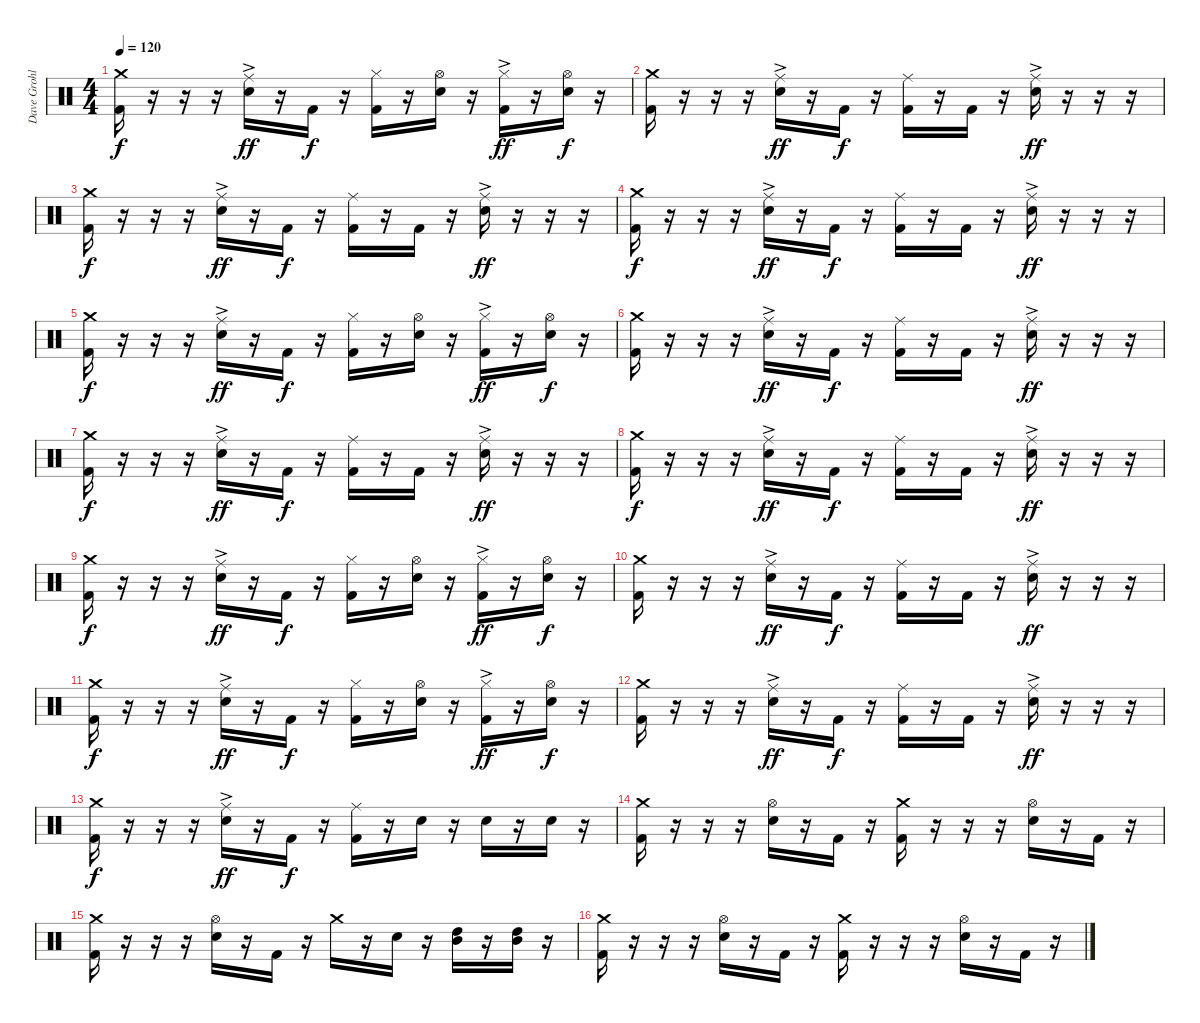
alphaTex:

\track ("Dave Grohl" "Dave Grohl") {instrument percussion}
\staff {score}
\articulation defaults
\ts (4 4)
\tempo 120
\clef neutral
\ks c
("Crash medium (hit)" "Kick (hit) 2").16{dy f} r.16 r.16 r.16 ("Ride (middle)"{ac} "Electric Snare (hit)").16{dy ff} r.16 "Kick (hit) 2".16{dy f} r.16 ("Hi-Hat (closed)" "Kick (hit) 2").16 r.16 ("Hi-Hat (open)" "Electric Snare (hit)").16 r.16 ("Hi-Hat (closed)"{ac} "Kick (hit) 2").16{dy ff} r.16 ("Hi-Hat (open)" "Electric Snare (hit)").16{dy f} r.16 |
("Crash medium (hit)" "Kick (hit) 2").16 r.16 r.16 r.16 ("Ride (middle)"{ac} "Electric Snare (hit)").16{dy ff} r.16 "Kick (hit) 2".16{dy f} r.16 ("Ride (middle)" "Kick (hit) 2").16 r.16 "Kick (hit) 2".16 r.16 ("Ride (middle)"{ac} "Electric Snare (hit)").16{dy ff} r.16 r.16 r.16 |
("Crash medium (hit)" "Kick (hit) 2").16{dy f} r.16 r.16 r.16 ("Ride (middle)"{ac} "Electric Snare (hit)").16{dy ff} r.16 "Kick (hit) 2".16{dy f} r.16 ("Ride (middle)" "Kick (hit) 2").16 r.16 "Kick (hit) 2".16 r.16 ("Ride (middle)"{ac} "Electric Snare (hit)").16{dy ff} r.16 r.16 r.16 |
("Crash medium (hit)" "Kick (hit) 2").16{dy f} r.16 r.16 r.16 ("Ride (middle)"{ac} "Electric Snare (hit)").16{dy ff} r.16 "Kick (hit) 2".16{dy f} r.16 ("Ride (middle)" "Kick (hit) 2").16 r.16 "Kick (hit) 2".16 r.16 ("Ride (middle)"{ac} "Electric Snare (hit)").16{dy ff} r.16 r.16 r.16 |
("Crash medium (hit)" "Kick (hit) 2").16{dy f} r.16 r.16 r.16 ("Ride (middle)"{ac} "Electric Snare (hit)").16{dy ff} r.16 "Kick (hit) 2".16{dy f} r.16 ("Hi-Hat (closed)" "Kick (hit) 2").16 r.16 ("Hi-Hat (open)" "Electric Snare (hit)").16 r.16 ("Hi-Hat (closed)"{ac} "Kick (hit) 2").16{dy ff} r.16 ("Hi-Hat (open)" "Electric Snare (hit)").16{dy f} r.16 |
("Crash medium (hit)" "Kick (hit) 2").16 r.16 r.16 r.16 ("Ride (middle)"{ac} "Electric Snare (hit)").16{dy ff} r.16 "Kick (hit) 2".16{dy f} r.16 ("Ride (middle)" "Kick (hit) 2").16 r.16 "Kick (hit) 2".16 r.16 ("Ride (middle)"{ac} "Electric Snare (hit)").16{dy ff} r.16 r.16 r.16 |
("Crash medium (hit)" "Kick (hit) 2").16{dy f} r.16 r.16 r.16 ("Ride (middle)"{ac} "Electric Snare (hit)").16{dy ff} r.16 "Kick (hit) 2".16{dy f} r.16 ("Ride (middle)" "Kick (hit) 2").16 r.16 "Kick (hit) 2".16 r.16 ("Ride (middle)"{ac} "Electric Snare (hit)").16{dy ff} r.16 r.16 r.16 |
("Crash medium (hit)" "Kick (hit) 2").16{dy f} r.16 r.16 r.16 ("Ride (middle)"{ac} "Electric Snare (hit)").16{dy ff} r.16 "Kick (hit) 2".16{dy f} r.16 ("Ride (middle)" "Kick (hit) 2").16 r.16 "Kick (hit) 2".16 r.16 ("Ride (middle)"{ac} "Electric Snare (hit)").16{dy ff} r.16 r.16 r.16 |
("Crash medium (hit)" "Kick (hit) 2").16{dy f} r.16 r.16 r.16 ("Ride (middle)"{ac} "Electric Snare (hit)").16{dy ff} r.16 "Kick (hit) 2".16{dy f} r.16 ("Hi-Hat (closed)" "Kick (hit) 2").16 r.16 ("Hi-Hat (open)" "Electric Snare (hit)").16 r.16 ("Hi-Hat (closed)"{ac} "Kick (hit) 2").16{dy ff} r.16 ("Hi-Hat (open)" "Electric Snare (hit)").16{dy f} r.16 |
("Crash medium (hit)" "Kick (hit) 2").16 r.16 r.16 r.16 ("Ride (middle)"{ac} "Electric Snare (hit)").16{dy ff} r.16 "Kick (hit) 2".16{dy f} r.16 ("Ride (middle)" "Kick (hit) 2").16 r.16 "Kick (hit) 2".16 r.16 ("Ride (middle)"{ac} "Electric Snare (hit)").16{dy ff} r.16 r.16 r.16 |
("Crash medium (hit)" "Kick (hit) 2").16{dy f} r.16 r.16 r.16 ("Ride (middle)"{ac} "Electric Snare (hit)").16{dy ff} r.16 "Kick (hit) 2".16{dy f} r.16 ("Hi-Hat (closed)" "Kick (hit) 2").16 r.16 ("Hi-Hat (open)" "Electric Snare (hit)").16 r.16 ("Hi-Hat (closed)"{ac} "Kick (hit) 2").16{dy ff} r.16 ("Hi-Hat (open)" "Electric Snare (hit)").16{dy f} r.16 |
("Crash medium (hit)" "Kick (hit) 2").16 r.16 r.16 r.16 ("Ride (middle)"{ac} "Electric Snare (hit)").16{dy ff} r.16 "Kick (hit) 2".16{dy f} r.16 ("Ride (middle)" "Kick (hit) 2").16 r.16 "Kick (hit) 2".16 r.16 ("Ride (middle)"{ac} "Electric Snare (hit)").16{dy ff} r.16 r.16 r.16 |
("Crash medium (hit)" "Kick (hit) 2").16{dy f} r.16 r.16 r.16 ("Ride (middle)"{ac} "Electric Snare (hit)").16{dy ff} r.16 "Kick (hit) 2".16{dy f} r.16 ("Ride (middle)" "Kick (hit) 2").16 r.16 "Electric Snare (hit)".16 r.16 "Electric Snare (hit)".16 r.16 "Electric Snare (hit)".16 r.16 |
("Crash medium (hit)" "Kick (hit) 2").16 r.16 r.16 r.16 ("Hi-Hat (open)" "Electric Snare (hit)").16 r.16 "Kick (hit) 2".16 r.16 ("Crash medium (hit)" "Kick (hit) 2").16 r.16 r.16 r.16 ("Hi-Hat (open)" "Electric Snare (hit)").16 r.16 "Kick (hit) 2".16 r.16 |
("Crash medium (hit)" "Kick (hit) 2").16 r.16 r.16 r.16 ("Hi-Hat (open)" "Electric Snare (hit)").16 r.16 "Kick (hit) 2".16 r.16 "Crash medium (hit)".16 r.16 "Electric Snare (hit)".16 r.16 ("High Tom (hit)" "Mid Tom (hit)").16 r.16 ("High Tom (hit)" "Mid Tom (hit)").16 r.16 |
("Crash medium (hit)" "Kick (hit) 2").16 r.16 r.16 r.16 ("Hi-Hat (open)" "Electric Snare (hit)").16 r.16 "Kick (hit) 2".16 r.16 ("Crash medium (hit)" "Kick (hit) 2").16 r.16 r.16 r.16 ("Hi-Hat (open)" "Electric Snare (hit)").16 r.16 "Kick (hit) 2".16 r.16
